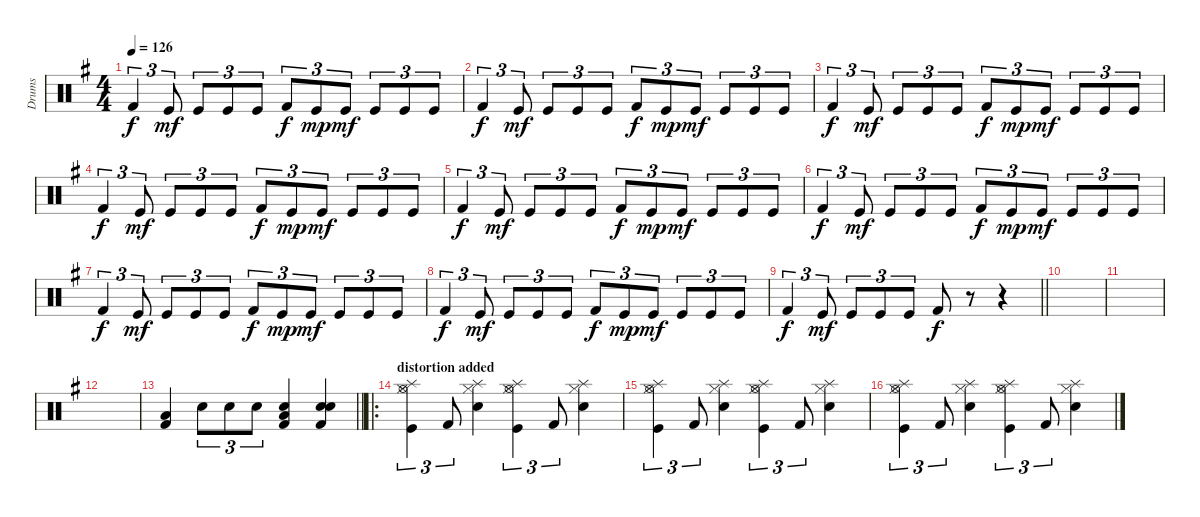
\track ("Drums" "Drums") {instrument percussion}
\staff {score}
\articulation defaults
\ts (4 4)
\tempo 126
\clef neutral
\ks eminor "Kick (hit) 2".4{tu (3 2) dy f} "Kick (hit)".8{tu (3 2) dy mf} "Kick (hit)".8{tu (3 2)} "Kick (hit)".8{tu (3 2)} "Kick (hit)".8{tu (3 2)} "Kick (hit) 2".8{tu (3 2) dy f} "Kick (hit)".8{tu (3 2) dy mp} "Kick (hit)".8{tu (3 2) dy mf} "Kick (hit)".8{tu (3 2)} "Kick (hit)".8{tu (3 2)} "Kick (hit)".8{tu (3 2)}
|
"Kick (hit) 2".4{tu (3 2) dy f} "Kick (hit)".8{tu (3 2) dy mf} "Kick (hit)".8{tu (3 2)} "Kick (hit)".8{tu (3 2)} "Kick (hit)".8{tu (3 2)} "Kick (hit) 2".8{tu (3 2) dy f} "Kick (hit)".8{tu (3 2) dy mp} "Kick (hit)".8{tu (3 2) dy mf} "Kick (hit)".8{tu (3 2)} "Kick (hit)".8{tu (3 2)} "Kick (hit)".8{tu (3 2)} |
"Kick (hit) 2".4{tu (3 2) dy f} "Kick (hit)".8{tu (3 2) dy mf} "Kick (hit)".8{tu (3 2)} "Kick (hit)".8{tu (3 2)} "Kick (hit)".8{tu (3 2)} "Kick (hit) 2".8{tu (3 2) dy f} "Kick (hit)".8{tu (3 2) dy mp} "Kick (hit)".8{tu (3 2) dy mf} "Kick (hit)".8{tu (3 2)} "Kick (hit)".8{tu (3 2)} "Kick (hit)".8{tu (3 2)} |
"Kick (hit) 2".4{tu (3 2) dy f} "Kick (hit)".8{tu (3 2) dy mf} "Kick (hit)".8{tu (3 2)} "Kick (hit)".8{tu (3 2)} "Kick (hit)".8{tu (3 2)} "Kick (hit) 2".8{tu (3 2) dy f} "Kick (hit)".8{tu (3 2) dy mp} "Kick (hit)".8{tu (3 2) dy mf} "Kick (hit)".8{tu (3 2)} "Kick (hit)".8{tu (3 2)} "Kick (hit)".8{tu (3 2)} |
"Kick (hit) 2".4{tu (3 2) dy f} "Kick (hit)".8{tu (3 2) dy mf} "Kick (hit)".8{tu (3 2)} "Kick (hit)".8{tu (3 2)} "Kick (hit)".8{tu (3 2)} "Kick (hit) 2".8{tu (3 2) dy f} "Kick (hit)".8{tu (3 2) dy mp} "Kick (hit)".8{tu (3 2) dy mf} "Kick (hit)".8{tu (3 2)} "Kick (hit)".8{tu (3 2)} "Kick (hit)".8{tu (3 2)} |
"Kick (hit) 2".4{tu (3 2) dy f} "Kick (hit)".8{tu (3 2) dy mf} "Kick (hit)".8{tu (3 2)} "Kick (hit)".8{tu (3 2)} "Kick (hit)".8{tu (3 2)} "Kick (hit) 2".8{tu (3 2) dy f} "Kick (hit)".8{tu (3 2) dy mp} "Kick (hit)".8{tu (3 2) dy mf} "Kick (hit)".8{tu (3 2)} "Kick (hit)".8{tu (3 2)} "Kick (hit)".8{tu (3 2)} |
"Kick (hit) 2".4{tu (3 2) dy f} "Kick (hit)".8{tu (3 2) dy mf} "Kick (hit)".8{tu (3 2)} "Kick (hit)".8{tu (3 2)} "Kick (hit)".8{tu (3 2)} "Kick (hit) 2".8{tu (3 2) dy f} "Kick (hit)".8{tu (3 2) dy mp} "Kick (hit)".8{tu (3 2) dy mf} "Kick (hit)".8{tu (3 2)} "Kick (hit)".8{tu (3 2)} "Kick (hit)".8{tu (3 2)} |
"Kick (hit) 2".4{tu (3 2) dy f} "Kick (hit)".8{tu (3 2) dy mf} "Kick (hit)".8{tu (3 2)} "Kick (hit)".8{tu (3 2)} "Kick (hit)".8{tu (3 2)} "Kick (hit) 2".8{tu (3 2) dy f} "Kick (hit)".8{tu (3 2) dy mp} "Kick (hit)".8{tu (3 2) dy mf} "Kick (hit)".8{tu (3 2)} "Kick (hit)".8{tu (3 2)} "Kick (hit)".8{tu (3 2)} |
\barLineRight lightlight "Kick (hit) 2".4{tu (3 2) dy f} "Kick (hit)".8{tu (3 2) dy mf} "Kick (hit)".8{tu (3 2)} "Kick (hit)".8{tu (3 2)} "Kick (hit)".8{tu (3 2)} "Kick (hit) 2".8{dy f}
r.8 r.4 |
|
|
|
\barLineRight lightlight
("Low Tom (hit)" "Kick (hit) 2").4{volume 12} "Snare (hit) 2".8{tu (3 2)} "Snare (hit) 2".8{tu (3 2)} "Snare (hit) 2".8{tu (3 2)} ("Snare (hit) 2" "Low Tom (hit)" "Kick (hit) 2").4 ("Snare (hit) 2" "Electric Snare (hit)" "Kick (hit) 2").4 |
\ro
\section ("" "distortion added")
("Splash (hit)" "Hi-Hat (closed)" "Hi-Hat (open)" "Kick (hit)").4{tu (3 2)} "Kick (hit) 2".8{tu (3 2)} ("Splash (hit)" "Hi-Hat (closed)" "Electric Snare (hit)").4 ("Splash (hit)" "Hi-Hat (closed)" "Hi-Hat (open)" "Kick (hit)").4{tu (3 2)} "Kick (hit) 2".8{tu (3 2)} ("Splash (hit)" "Hi-Hat (closed)" "Electric Snare (hit)").4 |
("Splash (hit)" "Hi-Hat (closed)" "Hi-Hat (open)" "Kick (hit)").4{tu (3 2)} "Kick (hit) 2".8{tu (3 2)} ("Splash (hit)" "Hi-Hat (closed)" "Electric Snare (hit)").4 ("Splash (hit)" "Hi-Hat (closed)" "Hi-Hat (open)" "Kick (hit)").4{tu (3 2)} "Kick (hit) 2".8{tu (3 2)} ("Splash (hit)" "Hi-Hat (closed)" "Electric Snare (hit)").4 |
("Splash (hit)" "Hi-Hat (closed)" "Hi-Hat (open)" "Kick (hit)").4{tu (3 2)} "Kick (hit) 2".8{tu (3 2)} ("Splash (hit)" "Hi-Hat (closed)" "Electric Snare (hit)").4 ("Splash (hit)" "Hi-Hat (closed)" "Hi-Hat (open)" "Kick (hit)").4{tu (3 2)} "Kick (hit) 2".8{tu (3 2)} ("Splash (hit)" "Hi-Hat (closed)" "Electric Snare (hit)").4
